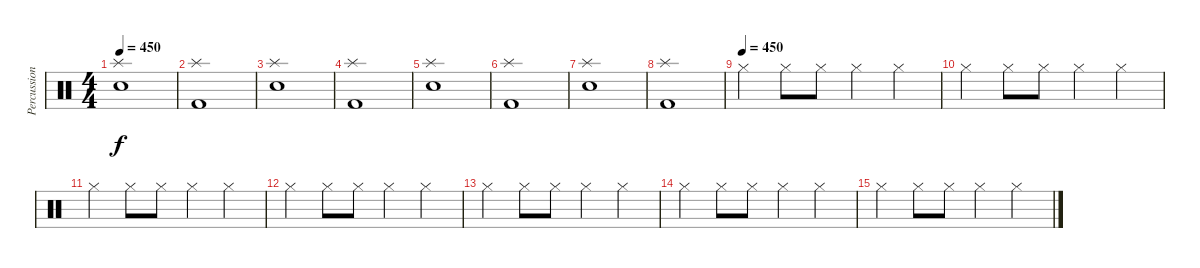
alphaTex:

\track ("Percussions" "Percussion") {instrument percussion}
\staff {score}
\articulation defaults
\ts (4 4)
\tempo 450
\clef neutral
\ks c
("Snare (hit) 2" "Splash (hit)").1{dy f} |
("Splash (hit)" "Kick (hit) 2").1 |
("Snare (hit) 2" "Splash (hit)").1 |
("Splash (hit)" "Kick (hit) 2").1 |
("Snare (hit) 2" "Splash (hit)").1 |
("Splash (hit)" "Kick (hit) 2").1 |
("Snare (hit) 2" "Splash (hit)").1 |
("Splash (hit)" "Kick (hit) 2").1 |
\tempo (450)
"Hi-Hat (closed)".4 "Hi-Hat (closed)".8 "Hi-Hat (closed)".8 "Hi-Hat (closed)".4 "Hi-Hat (closed)".4 |
"Hi-Hat (closed)".4 "Hi-Hat (closed)".8 "Hi-Hat (closed)".8 "Hi-Hat (closed)".4 "Hi-Hat (closed)".4 |
"Hi-Hat (closed)".4 "Hi-Hat (closed)".8 "Hi-Hat (closed)".8 "Hi-Hat (closed)".4 "Hi-Hat (closed)".4 |
"Hi-Hat (closed)".4 "Hi-Hat (closed)".8 "Hi-Hat (closed)".8 "Hi-Hat (closed)".4 "Hi-Hat (closed)".4 |
"Hi-Hat (closed)".4 "Hi-Hat (closed)".8 "Hi-Hat (closed)".8 "Hi-Hat (closed)".4 "Hi-Hat (closed)".4 |
"Hi-Hat (closed)".4 "Hi-Hat (closed)".8 "Hi-Hat (closed)".8 "Hi-Hat (closed)".4 "Hi-Hat (closed)".4 |
"Hi-Hat (closed)".4 "Hi-Hat (closed)".8 "Hi-Hat (closed)".8 "Hi-Hat (closed)".4 "Hi-Hat (closed)".4
